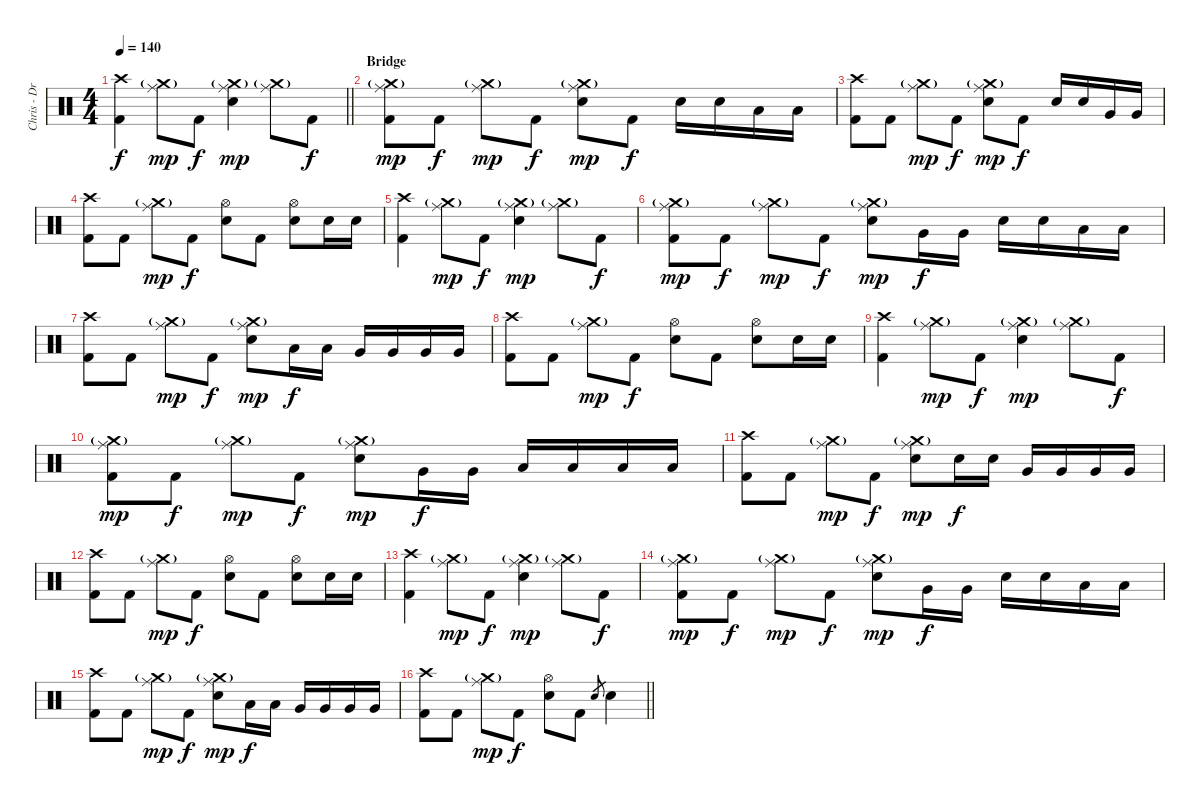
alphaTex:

\track ("Chris - Drums" "Chris - Dr") {instrument percussion}
\staff {score}
\articulation defaults
\ts (4 4)
\tempo 140
\clef neutral
\barLineRight lightlight
\ks c
("Crash high (hit)" "Kick (hit) 2").4{dy f} ("Crash medium (hit)"{g} "Ride (middle)").8{dy mp} "Kick (hit) 2".8{dy f} ("Crash medium (hit)"{g} "Ride (middle)" "Electric Snare (hit)").4{dy mp} ("Crash medium (hit)"{g} "Ride (middle)").8 "Kick (hit) 2".8{dy f} |
\section ("" "Bridge")
("Crash medium (hit)"{g} "Ride (middle)" "Kick (hit) 2").8{dy mp} "Kick (hit) 2".8{dy f} ("Crash medium (hit)"{g} "Ride (middle)").8{dy mp} "Kick (hit) 2".8{dy f} ("Crash medium (hit)"{g} "Ride (middle)" "Electric Snare (hit)").8{dy mp} "Kick (hit) 2".8{dy f} "Electric Snare (hit)".16 "Electric Snare (hit)".16 "Low Tom (hit)".16 "Low Tom (hit)".16 |
("Crash high (hit)" "Kick (hit) 2").8 "Kick (hit) 2".8 ("Crash medium (hit)"{g} "Ride (middle)").8{dy mp} "Kick (hit) 2".8{dy f} ("Crash medium (hit)"{g} "Ride (middle)" "Electric Snare (hit)").8{dy mp} "Kick (hit) 2".8{dy f} "Electric Snare (hit)".16 "Electric Snare (hit)".16 "Very Low Tom (hit)".16 "Very Low Tom (hit)".16 |
("Crash high (hit)" "Kick (hit) 2").8 "Kick (hit) 2".8 ("Crash medium (hit)"{g} "Ride (middle)").8{dy mp} "Kick (hit) 2".8{dy f} ("Hi-Hat (open)" "Electric Snare (hit)").8 "Kick (hit) 2".8 ("Hi-Hat (open)" "Electric Snare (hit)").8 "Electric Snare (hit)".16 "Electric Snare (hit)".16 |
("Crash high (hit)" "Kick (hit) 2").4 ("Crash medium (hit)"{g} "Ride (middle)").8{dy mp} "Kick (hit) 2".8{dy f} ("Crash medium (hit)"{g} "Ride (middle)" "Electric Snare (hit)").4{dy mp} ("Crash medium (hit)"{g} "Ride (middle)").8 "Kick (hit) 2".8{dy f} |
("Crash medium (hit)"{g} "Ride (middle)" "Kick (hit) 2").8{dy mp} "Kick (hit) 2".8{dy f} ("Crash medium (hit)"{g} "Ride (middle)").8{dy mp} "Kick (hit) 2".8{dy f} ("Crash medium (hit)"{g} "Ride (middle)" "Electric Snare (hit)").8{dy mp} "Very Low Tom (hit)".16{dy f} "Very Low Tom (hit)".16 "Electric Snare (hit)".16 "Electric Snare (hit)".16 "Low Tom (hit)".16 "Low Tom (hit)".16 |
("Crash high (hit)" "Kick (hit) 2").8 "Kick (hit) 2".8 ("Crash medium (hit)"{g} "Ride (middle)").8{dy mp} "Kick (hit) 2".8{dy f} ("Crash medium (hit)"{g} "Ride (middle)" "Electric Snare (hit)").8{dy mp} "Low Tom (hit)".16{dy f} "Low Tom (hit)".16 "Very Low Tom (hit)".16 "Very Low Tom (hit)".16 "Very Low Tom (hit)".16 "Very Low Tom (hit)".16 |
("Crash high (hit)" "Kick (hit) 2").8 "Kick (hit) 2".8 ("Crash medium (hit)"{g} "Ride (middle)").8{dy mp} "Kick (hit) 2".8{dy f} ("Hi-Hat (open)" "Electric Snare (hit)").8 "Kick (hit) 2".8 ("Hi-Hat (open)" "Electric Snare (hit)").8 "Electric Snare (hit)".16 "Electric Snare (hit)".16 |
("Crash high (hit)" "Kick (hit) 2").4 ("Crash medium (hit)"{g} "Ride (middle)").8{dy mp} "Kick (hit) 2".8{dy f} ("Crash medium (hit)"{g} "Ride (middle)" "Electric Snare (hit)").4{dy mp} ("Crash medium (hit)"{g} "Ride (middle)").8 "Kick (hit) 2".8{dy f} |
("Crash medium (hit)"{g} "Ride (middle)" "Kick (hit) 2").8{dy mp} "Kick (hit) 2".8{dy f} ("Crash medium (hit)"{g} "Ride (middle)").8{dy mp} "Kick (hit) 2".8{dy f} ("Crash medium (hit)"{g} "Ride (middle)" "Electric Snare (hit)").8{dy mp} "Very Low Tom (hit)".16{dy f} "Very Low Tom (hit)".16 "Low Tom (hit)".16 "Low Tom (hit)".16 "Low Tom (hit)".16 "Low Tom (hit)".16 |
("Crash high (hit)" "Kick (hit) 2").8 "Kick (hit) 2".8 ("Crash medium (hit)"{g} "Ride (middle)").8{dy mp} "Kick (hit) 2".8{dy f} ("Crash medium (hit)"{g} "Ride (middle)" "Electric Snare (hit)").8{dy mp} "Electric Snare (hit)".16{dy f} "Electric Snare (hit)".16 "Very Low Tom (hit)".16 "Very Low Tom (hit)".16 "Very Low Tom (hit)".16 "Very Low Tom (hit)".16 |
("Crash high (hit)" "Kick (hit) 2").8 "Kick (hit) 2".8 ("Crash medium (hit)"{g} "Ride (middle)").8{dy mp} "Kick (hit) 2".8{dy f} ("Hi-Hat (open)" "Electric Snare (hit)").8 "Kick (hit) 2".8 ("Hi-Hat (open)" "Electric Snare (hit)").8 "Electric Snare (hit)".16 "Electric Snare (hit)".16 |
("Crash high (hit)" "Kick (hit) 2").4 ("Crash medium (hit)"{g} "Ride (middle)").8{dy mp} "Kick (hit) 2".8{dy f} ("Crash medium (hit)"{g} "Ride (middle)" "Electric Snare (hit)").4{dy mp} ("Crash medium (hit)"{g} "Ride (middle)").8 "Kick (hit) 2".8{dy f} |
("Crash medium (hit)"{g} "Ride (middle)" "Kick (hit) 2").8{dy mp} "Kick (hit) 2".8{dy f} ("Crash medium (hit)"{g} "Ride (middle)").8{dy mp} "Kick (hit) 2".8{dy f} ("Crash medium (hit)"{g} "Ride (middle)" "Electric Snare (hit)").8{dy mp} "Very Low Tom (hit)".16{dy f} "Very Low Tom (hit)".16 "Electric Snare (hit)".16 "Electric Snare (hit)".16 "Low Tom (hit)".16 "Low Tom (hit)".16 |
("Crash high (hit)" "Kick (hit) 2").8 "Kick (hit) 2".8 ("Crash medium (hit)"{g} "Ride (middle)").8{dy mp} "Kick (hit) 2".8{dy f} ("Crash medium (hit)"{g} "Ride (middle)" "Electric Snare (hit)").8{dy mp} "Low Tom (hit)".16{dy f} "Low Tom (hit)".16 "Very Low Tom (hit)".16 "Very Low Tom (hit)".16 "Very Low Tom (hit)".16 "Very Low Tom (hit)".16 |
\barLineRight lightlight
("Crash high (hit)" "Kick (hit) 2").8 "Kick (hit) 2".8 ("Crash medium (hit)"{g} "Ride (middle)").8{dy mp} "Kick (hit) 2".8{dy f} ("Hi-Hat (open)" "Electric Snare (hit)").8 "Kick (hit) 2".8 "Electric Snare (hit)".8{gr} "Electric Snare (hit)".4
